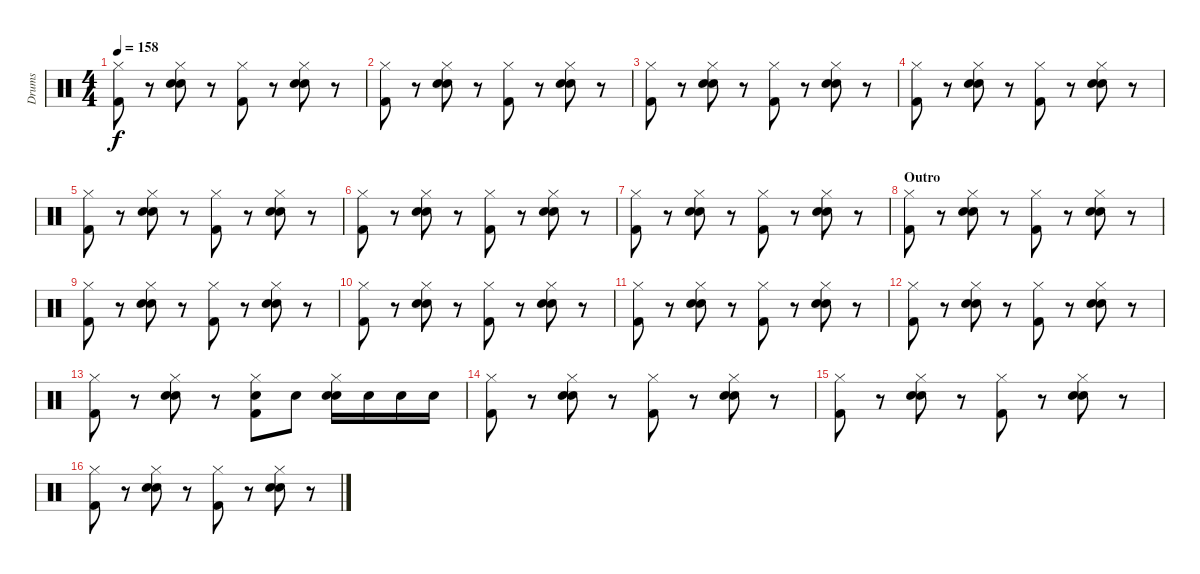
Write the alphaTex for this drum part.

\track ("Drums" "Drums") {instrument percussion}
\staff {score}
\articulation defaults
\ts (4 4)
\tempo 158
\clef neutral
\ks c
("Hi-Hat (closed)" "Kick (hit) 2").8{dy f} r.8 ("Hi-Hat (closed)" "Electric Snare (hit)" "Snare (hit) 2").8 r.8 ("Hi-Hat (closed)" "Kick (hit) 2").8 r.8 ("Hi-Hat (closed)" "Electric Snare (hit)" "Snare (hit) 2").8 r.8 |
("Hi-Hat (closed)" "Kick (hit) 2").8 r.8 ("Hi-Hat (closed)" "Electric Snare (hit)" "Snare (hit) 2").8 r.8 ("Hi-Hat (closed)" "Kick (hit) 2").8 r.8 ("Hi-Hat (closed)" "Electric Snare (hit)" "Snare (hit) 2").8 r.8 |
("Hi-Hat (closed)" "Kick (hit) 2").8 r.8 ("Hi-Hat (closed)" "Electric Snare (hit)" "Snare (hit) 2").8 r.8 ("Hi-Hat (closed)" "Kick (hit) 2").8 r.8 ("Hi-Hat (closed)" "Electric Snare (hit)" "Snare (hit) 2").8 r.8 |
("Hi-Hat (closed)" "Kick (hit) 2").8 r.8 ("Hi-Hat (closed)" "Electric Snare (hit)" "Snare (hit) 2").8 r.8 ("Hi-Hat (closed)" "Kick (hit) 2").8 r.8 ("Hi-Hat (closed)" "Electric Snare (hit)" "Snare (hit) 2").8 r.8 |
("Hi-Hat (closed)" "Kick (hit) 2").8 r.8 ("Hi-Hat (closed)" "Electric Snare (hit)" "Snare (hit) 2").8 r.8 ("Hi-Hat (closed)" "Kick (hit) 2").8 r.8 ("Hi-Hat (closed)" "Electric Snare (hit)" "Snare (hit) 2").8 r.8 |
("Hi-Hat (closed)" "Kick (hit) 2").8 r.8 ("Hi-Hat (closed)" "Electric Snare (hit)" "Snare (hit) 2").8 r.8 ("Hi-Hat (closed)" "Kick (hit) 2").8 r.8 ("Hi-Hat (closed)" "Electric Snare (hit)" "Snare (hit) 2").8 r.8 |
("Hi-Hat (closed)" "Kick (hit) 2").8 r.8 ("Hi-Hat (closed)" "Electric Snare (hit)" "Snare (hit) 2").8 r.8 ("Hi-Hat (closed)" "Kick (hit) 2").8 r.8 ("Hi-Hat (closed)" "Electric Snare (hit)" "Snare (hit) 2").8 r.8 |
\section ("" "Outro")
("Hi-Hat (closed)" "Kick (hit) 2").8 r.8 ("Hi-Hat (closed)" "Electric Snare (hit)" "Snare (hit) 2").8 r.8 ("Hi-Hat (closed)" "Kick (hit) 2").8 r.8 ("Hi-Hat (closed)" "Electric Snare (hit)" "Snare (hit) 2").8 r.8 |
("Hi-Hat (closed)" "Kick (hit) 2").8 r.8 ("Hi-Hat (closed)" "Electric Snare (hit)" "Snare (hit) 2").8 r.8 ("Hi-Hat (closed)" "Kick (hit) 2").8 r.8 ("Hi-Hat (closed)" "Electric Snare (hit)" "Snare (hit) 2").8 r.8 |
("Hi-Hat (closed)" "Kick (hit) 2").8 r.8 ("Hi-Hat (closed)" "Electric Snare (hit)" "Snare (hit) 2").8 r.8 ("Hi-Hat (closed)" "Kick (hit) 2").8 r.8 ("Hi-Hat (closed)" "Electric Snare (hit)" "Snare (hit) 2").8 r.8 |
("Hi-Hat (closed)" "Kick (hit) 2").8 r.8 ("Hi-Hat (closed)" "Electric Snare (hit)" "Snare (hit) 2").8 r.8 ("Hi-Hat (closed)" "Kick (hit) 2").8 r.8 ("Hi-Hat (closed)" "Electric Snare (hit)" "Snare (hit) 2").8 r.8 |
("Hi-Hat (closed)" "Kick (hit) 2").8 r.8 ("Hi-Hat (closed)" "Electric Snare (hit)" "Snare (hit) 2").8 r.8 ("Hi-Hat (closed)" "Kick (hit) 2").8 r.8 ("Hi-Hat (closed)" "Electric Snare (hit)" "Snare (hit) 2").8 r.8 |
("Hi-Hat (closed)" "Kick (hit) 2").8 r.8 ("Hi-Hat (closed)" "Electric Snare (hit)" "Snare (hit) 2").8 r.8 ("Hi-Hat (closed)" "Snare (hit) 2" "Kick (hit) 2").8 "Snare (hit) 2".8 ("Hi-Hat (closed)" "Electric Snare (hit)" "Snare (hit) 2").16 "Snare (hit) 2".16 "Snare (hit) 2".16 "Snare (hit) 2".16 |
("Hi-Hat (closed)" "Kick (hit) 2").8 r.8 ("Hi-Hat (closed)" "Electric Snare (hit)" "Snare (hit) 2").8 r.8 ("Hi-Hat (closed)" "Kick (hit) 2").8 r.8 ("Hi-Hat (closed)" "Electric Snare (hit)" "Snare (hit) 2").8 r.8 |
("Hi-Hat (closed)" "Kick (hit) 2").8 r.8 ("Hi-Hat (closed)" "Electric Snare (hit)" "Snare (hit) 2").8 r.8 ("Hi-Hat (closed)" "Kick (hit) 2").8 r.8 ("Hi-Hat (closed)" "Electric Snare (hit)" "Snare (hit) 2").8 r.8 |
("Hi-Hat (closed)" "Kick (hit) 2").8 r.8 ("Hi-Hat (closed)" "Electric Snare (hit)" "Snare (hit) 2").8 r.8 ("Hi-Hat (closed)" "Kick (hit) 2").8 r.8 ("Hi-Hat (closed)" "Electric Snare (hit)" "Snare (hit) 2").8 r.8
